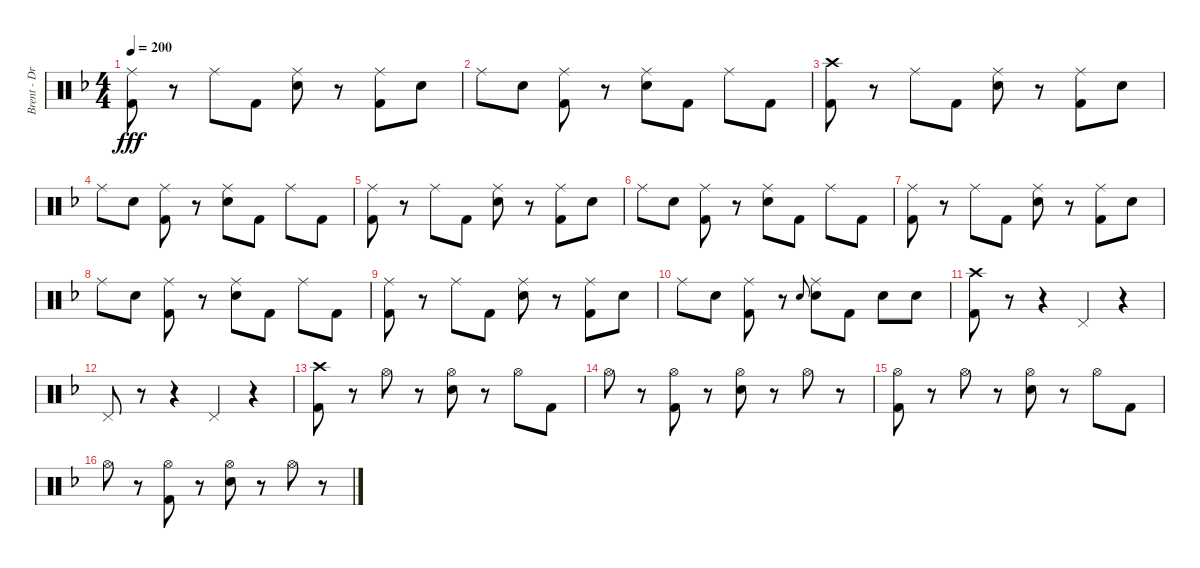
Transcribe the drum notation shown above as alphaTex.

\track ("Brent - Drums" "Brent - Dr") {instrument percussion}
\staff {score}
\articulation defaults
\ts (4 4)
\tempo 200
\clef neutral
\ks dminor
("Ride (middle)" "Kick (hit) 2").8{dy fff} r.8 "Ride (middle)".8 "Kick (hit) 2".8 ("Ride (middle)" "Snare (hit) 2").8 r.8 ("Ride (middle)" "Kick (hit) 2").8 "Snare (hit) 2".8 |
"Ride (middle)".8 "Snare (hit) 2".8 ("Ride (middle)" "Kick (hit) 2").8 r.8 ("Ride (middle)" "Snare (hit) 2").8 "Kick (hit) 2".8 "Ride (middle)".8 "Kick (hit) 2".8 |
("Crash high (hit)" "Kick (hit) 2").8 r.8 "Ride (middle)".8 "Kick (hit) 2".8 ("Ride (middle)" "Snare (hit) 2").8 r.8 ("Ride (middle)" "Kick (hit) 2").8 "Snare (hit) 2".8 |
"Ride (middle)".8 "Snare (hit) 2".8 ("Ride (middle)" "Kick (hit) 2").8 r.8 ("Ride (middle)" "Snare (hit) 2").8 "Kick (hit) 2".8 "Ride (middle)".8 "Kick (hit) 2".8 |
("Ride (middle)" "Kick (hit) 2").8 r.8 "Ride (middle)".8 "Kick (hit) 2".8 ("Ride (middle)" "Snare (hit) 2").8 r.8 ("Ride (middle)" "Kick (hit) 2").8 "Snare (hit) 2".8 |
"Ride (middle)".8 "Snare (hit) 2".8 ("Ride (middle)" "Kick (hit) 2").8 r.8 ("Ride (middle)" "Snare (hit) 2").8 "Kick (hit) 2".8 "Ride (middle)".8 "Kick (hit) 2".8 |
("Ride (middle)" "Kick (hit) 2").8 r.8 "Ride (middle)".8 "Kick (hit) 2".8 ("Ride (middle)" "Snare (hit) 2").8 r.8 ("Ride (middle)" "Kick (hit) 2").8 "Snare (hit) 2".8 |
"Ride (middle)".8 "Snare (hit) 2".8 ("Ride (middle)" "Kick (hit) 2").8 r.8 ("Ride (middle)" "Snare (hit) 2").8 "Kick (hit) 2".8 "Ride (middle)".8 "Kick (hit) 2".8 |
("Ride (middle)" "Kick (hit) 2").8 r.8 "Ride (middle)".8 "Kick (hit) 2".8 ("Ride (middle)" "Snare (hit) 2").8 r.8 ("Ride (middle)" "Kick (hit) 2").8 "Snare (hit) 2".8 |
"Ride (middle)".8 "Snare (hit) 2".8 ("Ride (middle)" "Kick (hit) 2").8 r.8 "Snare (hit) 2".8{gr onbeat} ("Ride (middle)" "Snare (hit) 2").8 "Kick (hit) 2".8 "Snare (hit) 2".8 "Snare (hit) 2".8 |
("Crash high (hit)" "Kick (hit) 2").8 r.8 r.4 "Pedal Hi-Hat (hit)".4 r.4 |
"Pedal Hi-Hat (hit)".8 r.8 r.4 "Pedal Hi-Hat (hit)".4 r.4 |
("Crash high (hit)" "Kick (hit) 2").8 r.8 "Hi-Hat (open)".8 r.8 ("Hi-Hat (open)" "Snare (hit) 2").8 r.8 "Hi-Hat (open)".8 "Kick (hit) 2".8 |
"Hi-Hat (open)".8 r.8 ("Hi-Hat (open)" "Kick (hit) 2").8 r.8 ("Hi-Hat (open)" "Snare (hit) 2").8 r.8 "Hi-Hat (open)".8 r.8 |
("Hi-Hat (open)" "Kick (hit) 2").8 r.8 "Hi-Hat (open)".8 r.8 ("Hi-Hat (open)" "Snare (hit) 2").8 r.8 "Hi-Hat (open)".8 "Kick (hit) 2".8 |
"Hi-Hat (open)".8 r.8 ("Hi-Hat (open)" "Kick (hit) 2").8 r.8 ("Hi-Hat (open)" "Snare (hit) 2").8 r.8 "Hi-Hat (open)".8 r.8
